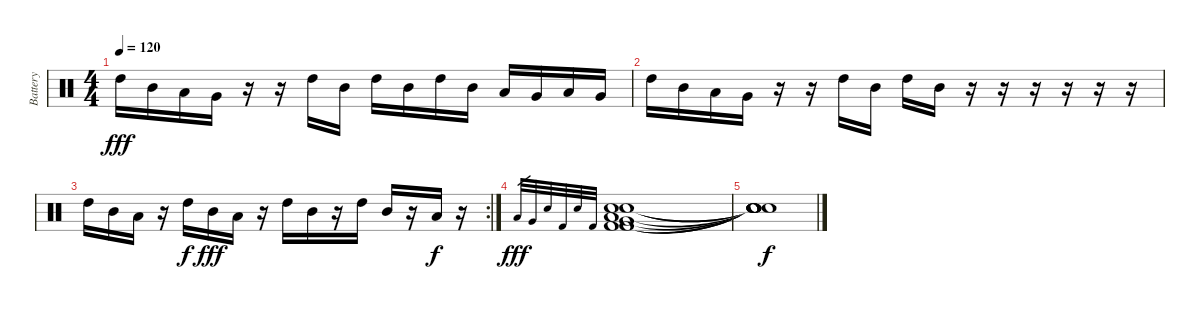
\track ("Battery" "Battery") {instrument percussion}
\staff {score}
\articulation defaults
\ts (4 4)
\tempo 120
\clef neutral
\ks c "High Tom (hit)".16{dy fff} "Mid Tom (hit)".16 "Low Tom (hit)".16 "Very Low Tom (hit)".16
r.16 r.16 "High Tom (hit)".16 "Mid Tom (hit)".16 "High Tom (hit)".16 "Mid Tom (hit)".16 "High Tom (hit)".16 "Mid Tom (hit)".16 "Low Tom (hit)".16 "Very Low Tom (hit)".16 "Low Tom (hit)".16 "Very Low Tom (hit)".16 |
"High Tom (hit)".16 "Mid Tom (hit)".16 "Low Tom (hit)".16 "Very Low Tom (hit)".16 r.16 r.16 "High Tom (hit)".16 "Mid Tom (hit)".16 "High Tom (hit)".16 "Mid Tom (hit)".16 r.16 r.16 r.16 r.16 r.16 r.16 |
\rc 2 "High Tom (hit)".16 "Mid Tom (hit)".16 "Low Tom (hit)".16
r.16 "High Tom (hit)".16{dy f} "Mid Tom (hit)".16{dy fff} "Low Tom (hit)".16 r.16 "High Tom (hit)".16 "Mid Tom (hit)".16 r.16 "High Tom (hit)".16 "Mid Tom (hit)".16 r.16 "Low Tom (hit)".16{dy f} r.16 |
"Low Floor Tom (hit)".32{gr dy fff} "Very Low Tom (hit)".32{gr} "Electric Snare (hit)".32{gr} "Kick (hit) 2".32{gr} "Electric Snare (hit)".32{gr} "Kick (hit) 2".32{gr} ("Low Floor Tom (hit)" "Very Low Tom (hit)" "Electric Snare (hit)" "Kick (hit) 2" "Electric Snare (hit)" "Kick (hit) 2").1 |
("Snare (hit)"{t} "Snare (hit)"{t} "Snare (hit)"{t} "Snare (hit)"{t} "Snare (hit)"{t} "Snare (hit)"{t}).1{dy f}
